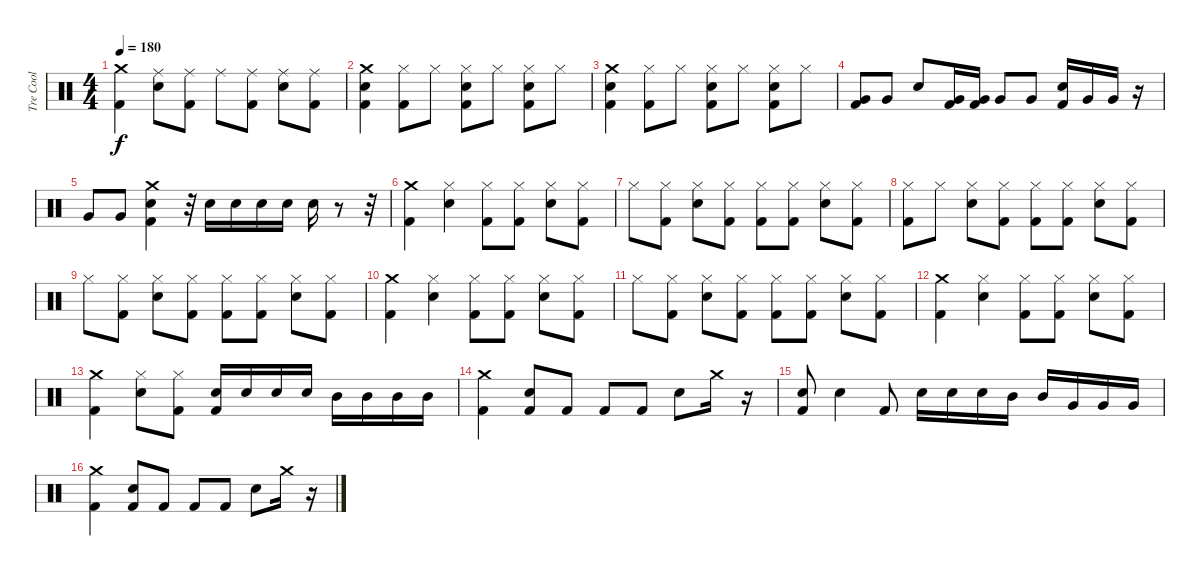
\track ("Tre Cool" "Tre Cool") {instrument percussion}
\staff {score}
\articulation defaults
\ts (4 4)
\tempo 180
\clef neutral
\ks c
("Crash medium (hit)" "Kick (hit) 2").4{dy f} ("Ride (middle)" "Snare (hit) 2").8 ("Ride (middle)" "Kick (hit) 2").8 "Ride (middle)".8 ("Ride (middle)" "Kick (hit) 2").8 ("Ride (middle)" "Snare (hit) 2").8 ("Ride (middle)" "Kick (hit) 2").8 |
("Crash medium (hit)" "Snare (hit) 2" "Kick (hit) 2").4 ("Hi-Hat (closed)" "Kick (hit) 2").8 "Hi-Hat (closed)".8 ("Hi-Hat (closed)" "Snare (hit) 2" "Kick (hit) 2").8 "Hi-Hat (closed)".8 ("Hi-Hat (closed)" "Snare (hit) 2" "Kick (hit) 2").8 "Hi-Hat (closed)".8 |
("Crash medium (hit)" "Snare (hit) 2" "Kick (hit) 2").4 ("Hi-Hat (closed)" "Kick (hit) 2").8 "Hi-Hat (closed)".8 ("Hi-Hat (closed)" "Snare (hit) 2" "Kick (hit) 2").8 "Hi-Hat (closed)".8 ("Hi-Hat (closed)" "Snare (hit) 2" "Kick (hit) 2").8 "Hi-Hat (closed)".8 |
("Very Low Tom (hit)" "Kick (hit) 2").8 "Very Low Tom (hit)".8 "Snare (hit) 2".8 ("Very Low Tom (hit)" "Kick (hit) 2").16 ("Very Low Tom (hit)" "Kick (hit) 2").16 "Very Low Tom (hit)".8 "Very Low Tom (hit)".8 ("Snare (hit) 2" "Kick (hit) 2").16 "Very Low Tom (hit)".16 "Very Low Tom (hit)".16 r.16 |
"Very Low Tom (hit)".8 "Very Low Tom (hit)".8 ("Crash medium (hit)" "Snare (hit) 2" "Kick (hit) 2").4 r.32 "Snare (hit) 2".16 "Snare (hit) 2".16 "Snare (hit) 2".16 "Snare (hit) 2".16 "Snare (hit) 2".16 r.8 r.32 |
("Crash medium (hit)" "Kick (hit) 2").4 ("Hi-Hat (closed)" "Snare (hit) 2").4 ("Hi-Hat (closed)" "Kick (hit) 2").8 ("Hi-Hat (closed)" "Kick (hit) 2").8 ("Hi-Hat (closed)" "Snare (hit) 2").8 ("Hi-Hat (closed)" "Kick (hit) 2").8 |
"Hi-Hat (closed)".8 ("Hi-Hat (closed)" "Kick (hit) 2").8 ("Hi-Hat (closed)" "Snare (hit) 2").8 ("Hi-Hat (closed)" "Kick (hit) 2").8 ("Hi-Hat (closed)" "Kick (hit) 2").8 ("Hi-Hat (closed)" "Kick (hit) 2").8 ("Hi-Hat (closed)" "Snare (hit) 2").8 ("Hi-Hat (closed)" "Kick (hit) 2").8 |
("Hi-Hat (closed)" "Kick (hit) 2").8 "Hi-Hat (closed)".8 ("Hi-Hat (closed)" "Snare (hit) 2").8 ("Hi-Hat (closed)" "Kick (hit) 2").8 ("Hi-Hat (closed)" "Kick (hit) 2").8 ("Hi-Hat (closed)" "Kick (hit) 2").8 ("Hi-Hat (closed)" "Snare (hit) 2").8 ("Hi-Hat (closed)" "Kick (hit) 2").8 |
"Hi-Hat (closed)".8 ("Hi-Hat (closed)" "Kick (hit) 2").8 ("Hi-Hat (closed)" "Snare (hit) 2").8 ("Hi-Hat (closed)" "Kick (hit) 2").8 ("Hi-Hat (closed)" "Kick (hit) 2").8 ("Hi-Hat (closed)" "Kick (hit) 2").8 ("Hi-Hat (closed)" "Snare (hit) 2").8 ("Hi-Hat (closed)" "Kick (hit) 2").8 |
("Crash medium (hit)" "Kick (hit) 2").4 ("Hi-Hat (closed)" "Snare (hit) 2").4 ("Hi-Hat (closed)" "Kick (hit) 2").8 ("Hi-Hat (closed)" "Kick (hit) 2").8 ("Hi-Hat (closed)" "Snare (hit) 2").8 ("Hi-Hat (closed)" "Kick (hit) 2").8 |
"Hi-Hat (closed)".8 ("Hi-Hat (closed)" "Kick (hit) 2").8 ("Hi-Hat (closed)" "Snare (hit) 2").8 ("Hi-Hat (closed)" "Kick (hit) 2").8 ("Hi-Hat (closed)" "Kick (hit) 2").8 ("Hi-Hat (closed)" "Kick (hit) 2").8 ("Hi-Hat (closed)" "Snare (hit) 2").8 ("Hi-Hat (closed)" "Kick (hit) 2").8 |
("Crash medium (hit)" "Kick (hit) 2").4 ("Hi-Hat (closed)" "Snare (hit) 2").4 ("Hi-Hat (closed)" "Kick (hit) 2").8 ("Hi-Hat (closed)" "Kick (hit) 2").8 ("Hi-Hat (closed)" "Snare (hit) 2").8 ("Hi-Hat (closed)" "Kick (hit) 2").8 |
("Crash medium (hit)" "Kick (hit) 2").4 ("Hi-Hat (closed)" "Snare (hit) 2").8 ("Hi-Hat (closed)" "Kick (hit) 2").8 ("Snare (hit) 2" "Kick (hit) 2").16 "Snare (hit) 2".16 "Snare (hit) 2".16 "Snare (hit) 2".16 "Mid Tom (hit)".16 "Mid Tom (hit)".16 "Mid Tom (hit)".16 "Mid Tom (hit)".16 |
("Crash medium (hit)" "Kick (hit) 2").4 ("Snare (hit) 2" "Kick (hit) 2").8 "Kick (hit) 2".8 "Kick (hit) 2".8 "Kick (hit) 2".8 "Snare (hit) 2".8 "Crash medium (hit)".16 r.16 |
("Snare (hit) 2" "Kick (hit) 2").8 "Snare (hit) 2".4 "Kick (hit) 2".8 "Snare (hit) 2".16 "Snare (hit) 2".16 "Snare (hit) 2".16 "Mid Tom (hit)".16 "Mid Tom (hit)".16 "Very Low Tom (hit)".16 "Very Low Tom (hit)".16 "Very Low Tom (hit)".16 |
("Crash medium (hit)" "Kick (hit) 2").4 ("Snare (hit) 2" "Kick (hit) 2").8 "Kick (hit) 2".8 "Kick (hit) 2".8 "Kick (hit) 2".8 "Snare (hit) 2".8 "Crash medium (hit)".16 r.16
